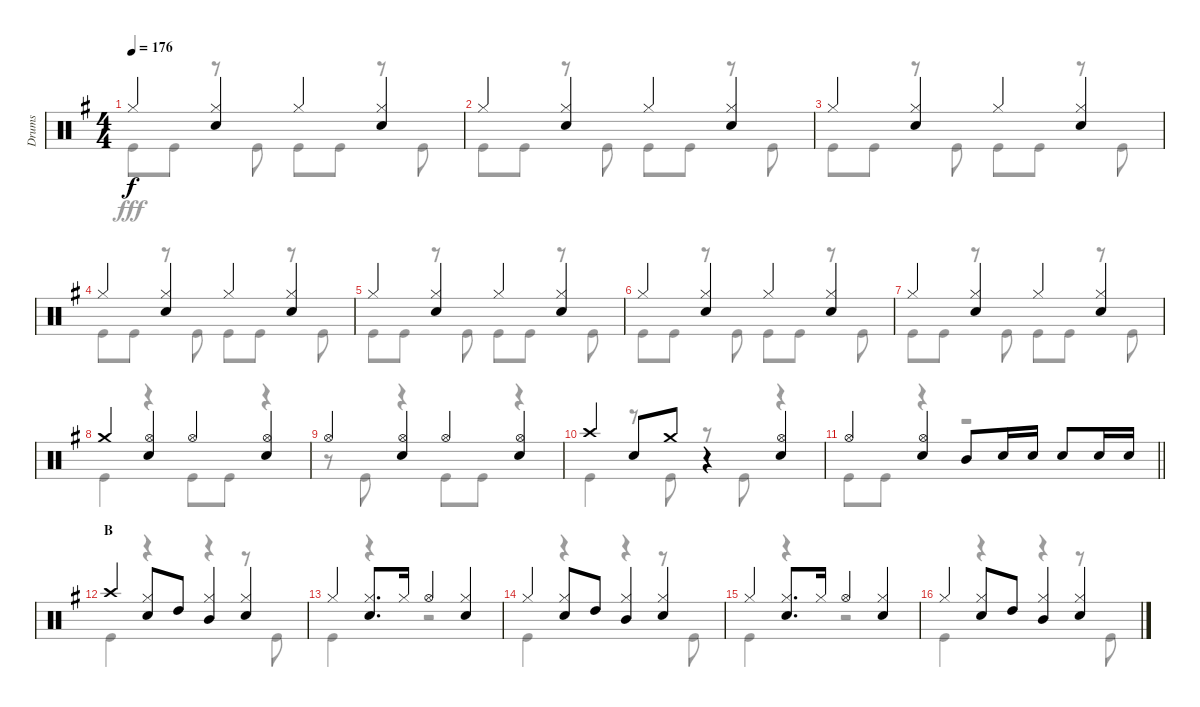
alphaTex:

\track ("Drums" "Drums") {instrument percussion}
\staff {score}
\articulation defaults
\voice
\ts (4 4)
\tempo 176
\clef neutral
\ks g "Hi-Hat (closed)".4{dy f}
("Hi-Hat (closed)" "Snare (hit) 2").4 "Hi-Hat (closed)".4 ("Hi-Hat (closed)" "Snare (hit) 2").4 |
"Hi-Hat (closed)".4 ("Hi-Hat (closed)" "Snare (hit) 2").4 "Hi-Hat (closed)".4 ("Hi-Hat (closed)" "Snare (hit) 2").4 |
"Hi-Hat (closed)".4 ("Hi-Hat (closed)" "Snare (hit) 2").4 "Hi-Hat (closed)".4 ("Hi-Hat (closed)" "Snare (hit) 2").4 |
"Hi-Hat (closed)".4 ("Hi-Hat (closed)" "Snare (hit) 2").4 "Hi-Hat (closed)".4 ("Hi-Hat (closed)" "Snare (hit) 2").4 |
"Hi-Hat (closed)".4 ("Hi-Hat (closed)" "Snare (hit) 2").4 "Hi-Hat (closed)".4 ("Hi-Hat (closed)" "Snare (hit) 2").4 |
"Hi-Hat (closed)".4 ("Hi-Hat (closed)" "Snare (hit) 2").4 "Hi-Hat (closed)".4 ("Hi-Hat (closed)" "Snare (hit) 2").4 |
"Hi-Hat (closed)".4 ("Hi-Hat (closed)" "Snare (hit) 2").4 "Hi-Hat (closed)".4 ("Hi-Hat (closed)" "Snare (hit) 2").4 |
"Crash medium (hit)".4 ("Hi-Hat (open)" "Snare (hit) 2").4 "Hi-Hat (open)".4 ("Hi-Hat (open)" "Snare (hit) 2").4 |
"Hi-Hat (open)".4 ("Hi-Hat (open)" "Snare (hit) 2").4 "Hi-Hat (open)".4 ("Hi-Hat (open)" "Snare (hit) 2").4 |
"Crash high (hit)".4 "Snare (hit) 2".8 "Crash medium (hit)".8 r.4 ("Hi-Hat (open)" "Snare (hit) 2").4 |
\barLineRight lightlight "Hi-Hat (open)".4
("Hi-Hat (open)" "Snare (hit) 2").4 "Mid Tom (hit)".8 "Snare (hit) 2".16 "Snare (hit) 2".16 "Snare (hit) 2".8 "Snare (hit) 2".16 "Snare (hit) 2".16 |
\section ("" "B")
"Crash high (hit)".4 ("Hi-Hat (closed)" "Snare (hit) 2").8 "High Tom (hit)".8 ("Hi-Hat (closed)" "Mid Tom (hit)").4 ("Hi-Hat (closed)" "Snare (hit) 2").4 |
"Hi-Hat (closed)".4 ("Hi-Hat (closed)" "Snare (hit) 2").8{d} "Hi-Hat (closed)".16 "Hi-Hat (open)".4 ("Hi-Hat (closed)" "Snare (hit) 2").4 |
"Hi-Hat (closed)".4 ("Hi-Hat (closed)" "Snare (hit) 2").8 "High Tom (hit)".8 ("Hi-Hat (closed)" "Mid Tom (hit)").4 ("Hi-Hat (closed)" "Snare (hit) 2").4 |
"Hi-Hat (closed)".4 ("Hi-Hat (closed)" "Snare (hit) 2").8{d} "Hi-Hat (closed)".16 "Hi-Hat (open)".4 ("Hi-Hat (closed)" "Snare (hit) 2").4 |
"Hi-Hat (closed)".4 ("Hi-Hat (closed)" "Snare (hit) 2").8 "High Tom (hit)".8 ("Hi-Hat (closed)" "Mid Tom (hit)").4 ("Hi-Hat (closed)" "Snare (hit) 2").4
\voice
\clef neutral
\ottava regular
\simile none
\ks g "Kick (hit)".8{dy fff} "Kick (hit)".8
r.8 "Kick (hit)".8 "Kick (hit)".8 "Kick (hit)".8 r.8 "Kick (hit)".8 |
"Kick (hit)".8 "Kick (hit)".8 r.8 "Kick (hit)".8 "Kick (hit)".8 "Kick (hit)".8 r.8 "Kick (hit)".8 |
"Kick (hit)".8 "Kick (hit)".8 r.8 "Kick (hit)".8 "Kick (hit)".8 "Kick (hit)".8 r.8 "Kick (hit)".8 |
"Kick (hit)".8 "Kick (hit)".8 r.8 "Kick (hit)".8 "Kick (hit)".8 "Kick (hit)".8 r.8 "Kick (hit)".8 |
"Kick (hit)".8 "Kick (hit)".8 r.8 "Kick (hit)".8 "Kick (hit)".8 "Kick (hit)".8 r.8 "Kick (hit)".8 |
"Kick (hit)".8 "Kick (hit)".8 r.8 "Kick (hit)".8 "Kick (hit)".8 "Kick (hit)".8 r.8 "Kick (hit)".8 |
"Kick (hit)".8 "Kick (hit)".8 r.8 "Kick (hit)".8 "Kick (hit)".8 "Kick (hit)".8 r.8 "Kick (hit)".8 |
"Kick (hit)".4 r.4 "Kick (hit)".8 "Kick (hit)".8 r.4 |
r.8 "Kick (hit)".8 r.4 "Kick (hit)".8 "Kick (hit)".8 r.4 |
"Kick (hit)".4 r.8 "Kick (hit)".8 r.8 "Kick (hit)".8 r.4 |
\barLineRight lightlight "Kick (hit)".8 "Kick (hit)".8
r.4 r.2 |
"Kick (hit)".4 r.4 r.4 r.8 "Kick (hit)".8 |
"Kick (hit)".4 r.4 r.2 |
"Kick (hit)".4 r.4 r.4 r.8 "Kick (hit)".8 |
"Kick (hit)".4 r.4 r.2 |
"Kick (hit)".4 r.4 r.4 r.8 "Kick (hit)".8
